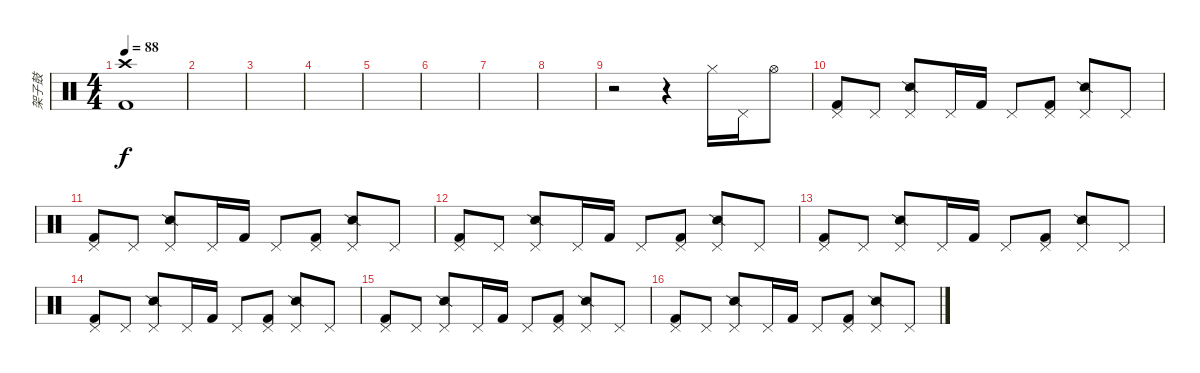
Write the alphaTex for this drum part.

\track ("架子鼓" "架子鼓") {instrument percussion}
\staff {score}
\articulation defaults
\ts (4 4)
\tempo 88
\clef neutral
\ks c
("Crash high (hit)" "Kick (hit) 2").1{dy f} |
|
|
|
|
|
|
|
r.2 r.4 "Hi-Hat (closed)".16 "Pedal Hi-Hat (hit)".16 "Hi-Hat (open)".8 |
("Pedal Hi-Hat (hit)" "Kick (hit) 2").8 "Pedal Hi-Hat (hit)".8 ("Pedal Hi-Hat (hit)" "Snare (side stick) 2").8 "Pedal Hi-Hat (hit)".16 "Kick (hit) 2".16 "Pedal Hi-Hat (hit)".8 ("Pedal Hi-Hat (hit)" "Kick (hit) 2").8 ("Pedal Hi-Hat (hit)" "Snare (side stick) 2").8 "Pedal Hi-Hat (hit)".8 |
("Pedal Hi-Hat (hit)" "Kick (hit) 2").8 "Pedal Hi-Hat (hit)".8 ("Pedal Hi-Hat (hit)" "Snare (side stick) 2").8 "Pedal Hi-Hat (hit)".16 "Kick (hit) 2".16 "Pedal Hi-Hat (hit)".8 ("Pedal Hi-Hat (hit)" "Kick (hit) 2").8 ("Pedal Hi-Hat (hit)" "Snare (side stick) 2").8 "Pedal Hi-Hat (hit)".8 |
("Pedal Hi-Hat (hit)" "Kick (hit) 2").8 "Pedal Hi-Hat (hit)".8 ("Pedal Hi-Hat (hit)" "Snare (side stick) 2").8 "Pedal Hi-Hat (hit)".16 "Kick (hit) 2".16 "Pedal Hi-Hat (hit)".8 ("Pedal Hi-Hat (hit)" "Kick (hit) 2").8 ("Pedal Hi-Hat (hit)" "Snare (side stick) 2").8 "Pedal Hi-Hat (hit)".8 |
("Pedal Hi-Hat (hit)" "Kick (hit) 2").8 "Pedal Hi-Hat (hit)".8 ("Pedal Hi-Hat (hit)" "Snare (side stick) 2").8 "Pedal Hi-Hat (hit)".16 "Kick (hit) 2".16 "Pedal Hi-Hat (hit)".8 ("Pedal Hi-Hat (hit)" "Kick (hit) 2").8 ("Pedal Hi-Hat (hit)" "Snare (side stick) 2").8 "Pedal Hi-Hat (hit)".8 |
("Pedal Hi-Hat (hit)" "Kick (hit) 2").8 "Pedal Hi-Hat (hit)".8 ("Pedal Hi-Hat (hit)" "Snare (side stick) 2").8 "Pedal Hi-Hat (hit)".16 "Kick (hit) 2".16 "Pedal Hi-Hat (hit)".8 ("Pedal Hi-Hat (hit)" "Kick (hit) 2").8 ("Pedal Hi-Hat (hit)" "Snare (side stick) 2").8 "Pedal Hi-Hat (hit)".8 |
("Pedal Hi-Hat (hit)" "Kick (hit) 2").8 "Pedal Hi-Hat (hit)".8 ("Pedal Hi-Hat (hit)" "Snare (side stick) 2").8 "Pedal Hi-Hat (hit)".16 "Kick (hit) 2".16 "Pedal Hi-Hat (hit)".8 ("Pedal Hi-Hat (hit)" "Kick (hit) 2").8 ("Pedal Hi-Hat (hit)" "Snare (side stick) 2").8 "Pedal Hi-Hat (hit)".8 |
("Pedal Hi-Hat (hit)" "Kick (hit) 2").8 "Pedal Hi-Hat (hit)".8 ("Pedal Hi-Hat (hit)" "Snare (side stick) 2").8 "Pedal Hi-Hat (hit)".16 "Kick (hit) 2".16 "Pedal Hi-Hat (hit)".8 ("Pedal Hi-Hat (hit)" "Kick (hit) 2").8 ("Pedal Hi-Hat (hit)" "Snare (side stick) 2").8 "Pedal Hi-Hat (hit)".8
